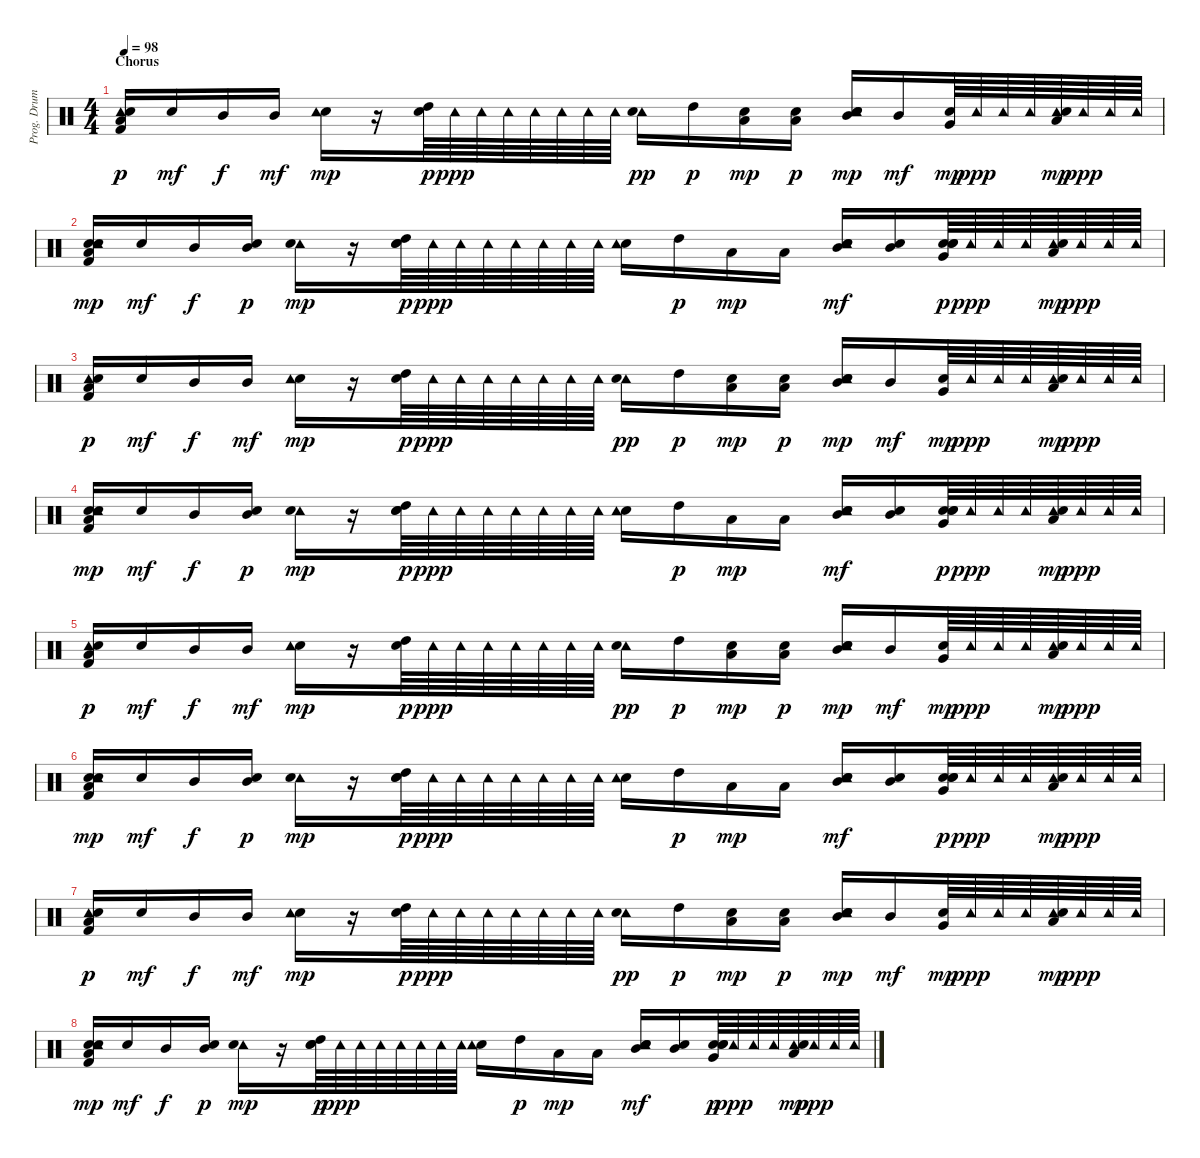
\track ("Prog. Drums" "Prog. Drum") {instrument percussion}
\staff {score}
\articulation defaults
\ts (4 4)
\section ("" "Chorus")
\tempo 98
\clef neutral
\ks c
("Tambourine (hit)" "Snare (hit)" "Low Floor Tom (hit)" "Kick (hit) 2").16{dy p} "Snare (hit)".16{dy mf} "Mid Tom (hit)".16{dy f} "Mid Tom (hit)".16{dy mf} ("Snare (hit) 2" "Tambourine (hit)").16{dy mp} r.16 ("High Tom (hit)" "Snare (hit)").64{dy p} "Tambourine (hit)".64{dy ppp} "Tambourine (hit)".64 "Tambourine (hit)".64 "Tambourine (hit)".64 "Tambourine (hit)".64 "Tambourine (hit)".64 "Tambourine (hit)".64 ("Tambourine (hit)" "Snare (hit) 2").16{dy pp} "High Tom (hit)".16{dy p} ("Snare (hit)" "Low Tom (hit)").16{dy mp} ("Low Tom (hit)" "Snare (hit)").16{dy p} ("Snare (hit) 2" "Mid Tom (hit)" "Snare (hit)" "Tambourine (hit)").16{dy mp} "Mid Tom (hit)".16{dy mf} ("Snare (hit)" "Very Low Tom (hit)").64{dy mp} "Tambourine (hit)".64{dy ppp} "Tambourine (hit)".64 "Tambourine (hit)".64 ("Tambourine (hit)" "Snare (hit) 2" "Low Tom (hit)").64{dy mp} "Tambourine (hit)".64{dy ppp} "Tambourine (hit)".64 "Tambourine (hit)".64 |
("Snare (hit)" "Snare (hit)" "Tambourine (hit)" "Kick (hit) 2" "Low Floor Tom (hit)").16{dy mp} "Snare (hit)".16{dy mf} "Mid Tom (hit)".16{dy f} ("Mid Tom (hit)" "Snare (hit)").16{dy p} ("Tambourine (hit)" "Snare (hit) 2").16{dy mp} r.16 ("High Tom (hit)" "Snare (hit)" "Snare (hit)").64{dy p} "Tambourine (hit)".64{dy ppp} "Tambourine (hit)".64 "Tambourine (hit)".64 "Tambourine (hit)".64 "Tambourine (hit)".64 "Tambourine (hit)".64 "Tambourine (hit)".64 ("Snare (hit) 2" "Tambourine (hit)").16 "High Tom (hit)".16{dy p} "Low Tom (hit)".16{dy mp} "Low Tom (hit)".16 ("Tambourine (hit)" "Snare (hit)" "Snare (hit) 2" "Mid Tom (hit)").16{dy mf} ("Snare (hit) 2" "Mid Tom (hit)").16 ("Snare (hit) 2" "Very Low Tom (hit)" "Snare (hit)" "Snare (hit)").64{dy p} "Tambourine (hit)".64{dy ppp} "Tambourine (hit)".64 "Tambourine (hit)".64 ("Tambourine (hit)" "Snare (hit) 2" "Low Tom (hit)").64{dy mp} "Tambourine (hit)".64{dy ppp} "Tambourine (hit)".64 "Tambourine (hit)".64 |
("Tambourine (hit)" "Snare (hit)" "Low Floor Tom (hit)" "Kick (hit) 2").16{dy p} "Snare (hit)".16{dy mf} "Mid Tom (hit)".16{dy f} "Mid Tom (hit)".16{dy mf} ("Snare (hit) 2" "Tambourine (hit)").16{dy mp} r.16 ("High Tom (hit)" "Snare (hit)").64{dy p} "Tambourine (hit)".64{dy ppp} "Tambourine (hit)".64 "Tambourine (hit)".64 "Tambourine (hit)".64 "Tambourine (hit)".64 "Tambourine (hit)".64 "Tambourine (hit)".64 ("Tambourine (hit)" "Snare (hit) 2").16{dy pp} "High Tom (hit)".16{dy p} ("Snare (hit)" "Low Tom (hit)").16{dy mp} ("Low Tom (hit)" "Snare (hit)").16{dy p} ("Snare (hit) 2" "Mid Tom (hit)" "Snare (hit)" "Tambourine (hit)").16{dy mp} "Mid Tom (hit)".16{dy mf} ("Snare (hit)" "Very Low Tom (hit)").64{dy mp} "Tambourine (hit)".64{dy ppp} "Tambourine (hit)".64 "Tambourine (hit)".64 ("Tambourine (hit)" "Snare (hit) 2" "Low Tom (hit)").64{dy mp} "Tambourine (hit)".64{dy ppp} "Tambourine (hit)".64 "Tambourine (hit)".64 |
("Snare (hit)" "Snare (hit)" "Tambourine (hit)" "Kick (hit) 2" "Low Floor Tom (hit)").16{dy mp} "Snare (hit)".16{dy mf} "Mid Tom (hit)".16{dy f} ("Mid Tom (hit)" "Snare (hit)").16{dy p} ("Tambourine (hit)" "Snare (hit) 2").16{dy mp} r.16 ("High Tom (hit)" "Snare (hit)" "Snare (hit)").64{dy p} "Tambourine (hit)".64{dy ppp} "Tambourine (hit)".64 "Tambourine (hit)".64 "Tambourine (hit)".64 "Tambourine (hit)".64 "Tambourine (hit)".64 "Tambourine (hit)".64 ("Snare (hit) 2" "Tambourine (hit)").16 "High Tom (hit)".16{dy p} "Low Tom (hit)".16{dy mp} "Low Tom (hit)".16 ("Tambourine (hit)" "Snare (hit)" "Snare (hit) 2" "Mid Tom (hit)").16{dy mf} ("Snare (hit) 2" "Mid Tom (hit)").16 ("Snare (hit) 2" "Very Low Tom (hit)" "Snare (hit)" "Snare (hit)").64{dy p} "Tambourine (hit)".64{dy ppp} "Tambourine (hit)".64 "Tambourine (hit)".64 ("Tambourine (hit)" "Snare (hit) 2" "Low Tom (hit)").64{dy mp} "Tambourine (hit)".64{dy ppp} "Tambourine (hit)".64 "Tambourine (hit)".64 |
("Tambourine (hit)" "Snare (hit)" "Low Floor Tom (hit)" "Kick (hit) 2").16{dy p} "Snare (hit)".16{dy mf} "Mid Tom (hit)".16{dy f} "Mid Tom (hit)".16{dy mf} ("Snare (hit) 2" "Tambourine (hit)").16{dy mp} r.16 ("High Tom (hit)" "Snare (hit)").64{dy p} "Tambourine (hit)".64{dy ppp} "Tambourine (hit)".64 "Tambourine (hit)".64 "Tambourine (hit)".64 "Tambourine (hit)".64 "Tambourine (hit)".64 "Tambourine (hit)".64 ("Tambourine (hit)" "Snare (hit) 2").16{dy pp} "High Tom (hit)".16{dy p} ("Snare (hit)" "Low Tom (hit)").16{dy mp} ("Low Tom (hit)" "Snare (hit)").16{dy p} ("Snare (hit) 2" "Mid Tom (hit)" "Snare (hit)" "Tambourine (hit)").16{dy mp} "Mid Tom (hit)".16{dy mf} ("Snare (hit)" "Very Low Tom (hit)").64{dy mp} "Tambourine (hit)".64{dy ppp} "Tambourine (hit)".64 "Tambourine (hit)".64 ("Tambourine (hit)" "Snare (hit) 2" "Low Tom (hit)").64{dy mp} "Tambourine (hit)".64{dy ppp} "Tambourine (hit)".64 "Tambourine (hit)".64 |
("Snare (hit)" "Snare (hit)" "Tambourine (hit)" "Kick (hit) 2" "Low Floor Tom (hit)").16{dy mp} "Snare (hit)".16{dy mf} "Mid Tom (hit)".16{dy f} ("Mid Tom (hit)" "Snare (hit)").16{dy p} ("Tambourine (hit)" "Snare (hit) 2").16{dy mp} r.16 ("High Tom (hit)" "Snare (hit)" "Snare (hit)").64{dy p} "Tambourine (hit)".64{dy ppp} "Tambourine (hit)".64 "Tambourine (hit)".64 "Tambourine (hit)".64 "Tambourine (hit)".64 "Tambourine (hit)".64 "Tambourine (hit)".64 ("Snare (hit) 2" "Tambourine (hit)").16 "High Tom (hit)".16{dy p} "Low Tom (hit)".16{dy mp} "Low Tom (hit)".16 ("Tambourine (hit)" "Snare (hit)" "Snare (hit) 2" "Mid Tom (hit)").16{dy mf} ("Snare (hit) 2" "Mid Tom (hit)").16 ("Snare (hit) 2" "Very Low Tom (hit)" "Snare (hit)" "Snare (hit)").64{dy p} "Tambourine (hit)".64{dy ppp} "Tambourine (hit)".64 "Tambourine (hit)".64 ("Tambourine (hit)" "Snare (hit) 2" "Low Tom (hit)").64{dy mp} "Tambourine (hit)".64{dy ppp} "Tambourine (hit)".64 "Tambourine (hit)".64 |
("Tambourine (hit)" "Snare (hit)" "Low Floor Tom (hit)" "Kick (hit) 2").16{dy p} "Snare (hit)".16{dy mf} "Mid Tom (hit)".16{dy f} "Mid Tom (hit)".16{dy mf} ("Snare (hit) 2" "Tambourine (hit)").16{dy mp} r.16 ("High Tom (hit)" "Snare (hit)").64{dy p} "Tambourine (hit)".64{dy ppp} "Tambourine (hit)".64 "Tambourine (hit)".64 "Tambourine (hit)".64 "Tambourine (hit)".64 "Tambourine (hit)".64 "Tambourine (hit)".64 ("Tambourine (hit)" "Snare (hit) 2").16{dy pp} "High Tom (hit)".16{dy p} ("Snare (hit)" "Low Tom (hit)").16{dy mp} ("Low Tom (hit)" "Snare (hit)").16{dy p} ("Snare (hit) 2" "Mid Tom (hit)" "Snare (hit)" "Tambourine (hit)").16{dy mp} "Mid Tom (hit)".16{dy mf} ("Snare (hit)" "Very Low Tom (hit)").64{dy mp} "Tambourine (hit)".64{dy ppp} "Tambourine (hit)".64 "Tambourine (hit)".64 ("Tambourine (hit)" "Snare (hit) 2" "Low Tom (hit)").64{dy mp} "Tambourine (hit)".64{dy ppp} "Tambourine (hit)".64 "Tambourine (hit)".64 |
("Snare (hit)" "Snare (hit)" "Tambourine (hit)" "Kick (hit) 2" "Low Floor Tom (hit)").16{dy mp} "Snare (hit)".16{dy mf} "Mid Tom (hit)".16{dy f} ("Mid Tom (hit)" "Snare (hit)").16{dy p} ("Tambourine (hit)" "Snare (hit) 2").16{dy mp} r.16 ("High Tom (hit)" "Snare (hit)" "Snare (hit)").64{dy p} "Tambourine (hit)".64{dy ppp} "Tambourine (hit)".64 "Tambourine (hit)".64 "Tambourine (hit)".64 "Tambourine (hit)".64 "Tambourine (hit)".64 "Tambourine (hit)".64 ("Snare (hit) 2" "Tambourine (hit)").16 "High Tom (hit)".16{dy p} "Low Tom (hit)".16{dy mp} "Low Tom (hit)".16 ("Tambourine (hit)" "Snare (hit)" "Snare (hit) 2" "Mid Tom (hit)").16{dy mf} ("Snare (hit) 2" "Mid Tom (hit)").16 ("Snare (hit) 2" "Very Low Tom (hit)" "Snare (hit)" "Snare (hit)").64{dy p} "Tambourine (hit)".64{dy ppp} "Tambourine (hit)".64 "Tambourine (hit)".64 ("Tambourine (hit)" "Snare (hit) 2" "Low Tom (hit)").64{dy mp} "Tambourine (hit)".64{dy ppp} "Tambourine (hit)".64 "Tambourine (hit)".64
